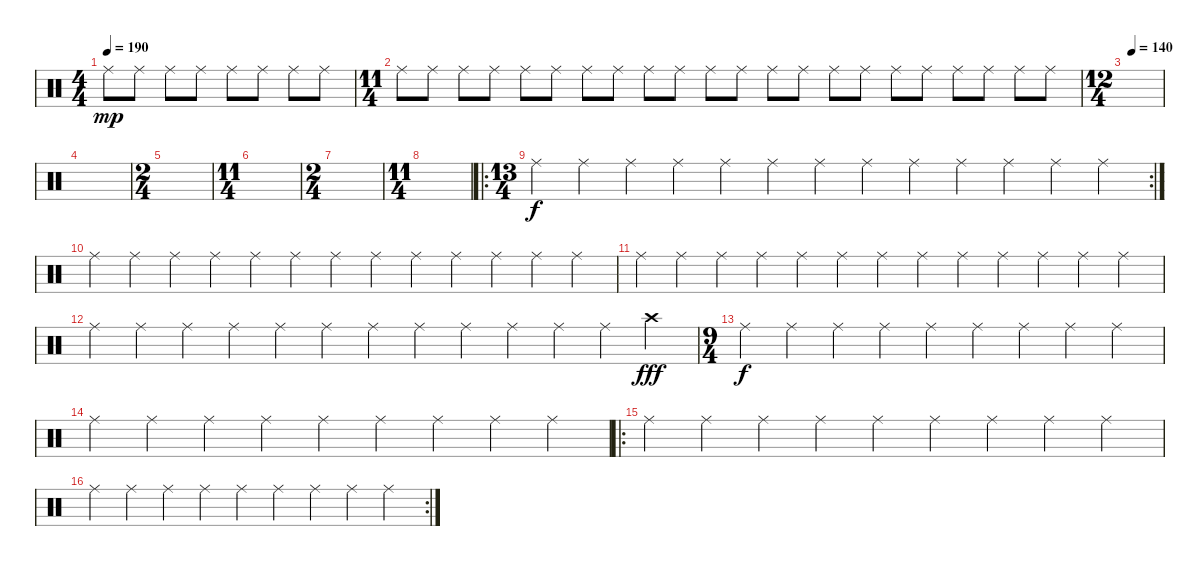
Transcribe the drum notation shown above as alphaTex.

\track "" {instrument percussion}
\staff {score}
\articulation defaults
\ts (4 4)
\tempo 190
\clef neutral
\ks c "Ride (middle)".8{dy mp} "Ride (middle)".8 "Ride (middle)".8 "Ride (middle)".8 "Ride (middle)".8 "Ride (middle)".8 "Ride (middle)".8 "Ride (middle)".8
|
\ts (11 4)
"Ride (middle)".8 "Ride (middle)".8 "Ride (middle)".8 "Ride (middle)".8 "Ride (middle)".8 "Ride (middle)".8 "Ride (middle)".8 "Ride (middle)".8 "Ride (middle)".8 "Ride (middle)".8 "Ride (middle)".8 "Ride (middle)".8 "Ride (middle)".8 "Ride (middle)".8 "Ride (middle)".8 "Ride (middle)".8 "Ride (middle)".8 "Ride (middle)".8 "Ride (middle)".8 "Ride (middle)".8 "Ride (middle)".8 "Ride (middle)".8 |
\ts (12 4)
\tempo (140 0.16666666666666666)
|
|
\ts (2 4)
|
\ts (11 4)
|
\ts (2 4)
|
\ts (11 4)
|
\ro
\rc 2
\ts (13 4)
"Ride (middle)".4{dy f} "Ride (middle)".4 "Ride (middle)".4 "Ride (middle)".4 "Ride (middle)".4 "Ride (middle)".4 "Ride (middle)".4 "Ride (middle)".4 "Ride (middle)".4 "Ride (middle)".4 "Ride (middle)".4 "Ride (middle)".4 "Ride (middle)".4 |
"Ride (middle)".4 "Ride (middle)".4 "Ride (middle)".4 "Ride (middle)".4 "Ride (middle)".4 "Ride (middle)".4 "Ride (middle)".4 "Ride (middle)".4 "Ride (middle)".4 "Ride (middle)".4 "Ride (middle)".4 "Ride (middle)".4 "Ride (middle)".4 |
"Ride (middle)".4 "Ride (middle)".4 "Ride (middle)".4 "Ride (middle)".4 "Ride (middle)".4 "Ride (middle)".4 "Ride (middle)".4 "Ride (middle)".4 "Ride (middle)".4 "Ride (middle)".4 "Ride (middle)".4 "Ride (middle)".4 "Ride (middle)".4 |
"Ride (middle)".4 "Ride (middle)".4 "Ride (middle)".4 "Ride (middle)".4 "Ride (middle)".4 "Ride (middle)".4 "Ride (middle)".4 "Ride (middle)".4 "Ride (middle)".4 "Ride (middle)".4 "Ride (middle)".4 "Ride (middle)".4 "Crash high (hit)".4{dy fff} |
\ts (9 4)
"Ride (middle)".4{dy f} "Ride (middle)".4 "Ride (middle)".4 "Ride (middle)".4 "Ride (middle)".4 "Ride (middle)".4 "Ride (middle)".4 "Ride (middle)".4 "Ride (middle)".4 |
"Ride (middle)".4 "Ride (middle)".4 "Ride (middle)".4 "Ride (middle)".4 "Ride (middle)".4 "Ride (middle)".4 "Ride (middle)".4 "Ride (middle)".4 "Ride (middle)".4 |
\ro "Ride (middle)".4 "Ride (middle)".4 "Ride (middle)".4 "Ride (middle)".4 "Ride (middle)".4 "Ride (middle)".4 "Ride (middle)".4 "Ride (middle)".4 "Ride (middle)".4
|
\rc 2 "Ride (middle)".4 "Ride (middle)".4 "Ride (middle)".4 "Ride (middle)".4 "Ride (middle)".4 "Ride (middle)".4 "Ride (middle)".4 "Ride (middle)".4 "Ride (middle)".4
